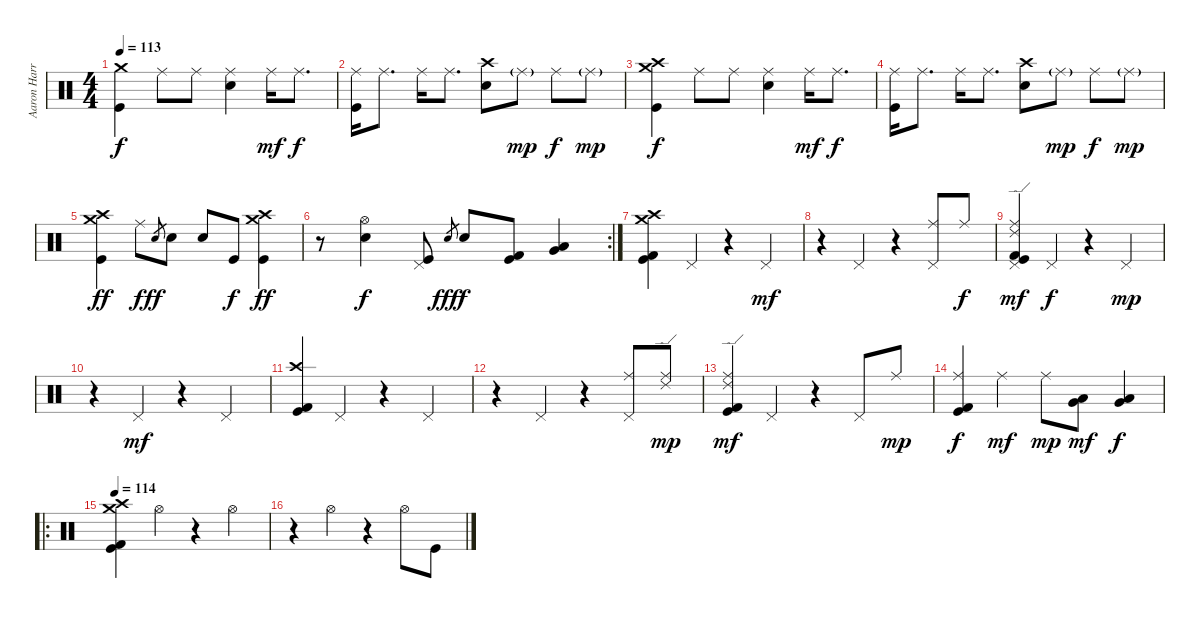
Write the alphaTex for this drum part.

\track ("Aaron Harris" "Aaron Harr") {instrument percussion}
\staff {score}
\articulation defaults
\ts (4 4)
\tempo 113
\clef neutral
\ks c
("Crash medium (hit)" "Kick (hit)").4{dy f} "Ride (middle)".8 "Ride (middle)".8 ("Ride (middle)" "Electric Snare (hit)").4 "Ride (middle)".16{dy mf} "Ride (middle)".8{d dy f} |
("Ride (middle)" "Kick (hit)").16 "Ride (middle)".8{d} "Ride (middle)".16 "Ride (middle)".8{d} ("Crash high (hit)" "Electric Snare (hit)").8 "Ride (middle)"{g}.8{dy mp} "Ride (middle)".8{dy f} "Ride (middle)"{g}.8{dy mp} |
("Crash medium (hit)" "Crash high (hit)" "Kick (hit)").4{dy f} "Ride (middle)".8 "Ride (middle)".8 ("Ride (middle)" "Electric Snare (hit)").4 "Ride (middle)".16{dy mf} "Ride (middle)".8{d dy f} |
("Ride (middle)" "Kick (hit)").16 "Ride (middle)".8{d} "Ride (middle)".16 "Ride (middle)".8{d} ("Crash high (hit)" "Electric Snare (hit)").8 "Ride (middle)"{g}.8{dy mp} "Ride (middle)".8{dy f} "Ride (middle)"{g}.8{dy mp} |
("Crash medium (hit)" "Crash high (hit)" "Kick (hit)").4{dy ff} "Ride (middle)".8{dy f} "Electric Snare (hit)".8{gr dy ff} "Electric Snare (hit)".8 "Electric Snare (hit)".8 "Kick (hit)".8{dy f} ("Crash medium (hit)" "Crash high (hit)" "Kick (hit)").4{dy ff} |
\rc 2
r.8 ("Hi-Hat (open)" "Electric Snare (hit)").4{dy f} ("Pedal Hi-Hat (hit)" "Kick (hit)").8 "Electric Snare (hit)".8{gr dy fff} "Electric Snare (hit)".8{dy f} ("Kick (hit) 2" "Kick (hit)").8 ("Low Tom (hit)" "Very Low Tom (hit)").4 |
("Crash medium (hit)" "Crash high (hit)" "Kick (hit) 2" "Kick (hit)").4 "Pedal Hi-Hat (hit)".4 r.4 "Pedal Hi-Hat (hit)".4{dy mf} |
r.4 "Pedal Hi-Hat (hit)".4 r.4 ("Ride (middle)" "Pedal Hi-Hat (hit)").8 "Ride (middle)".8{dy f} |
("Ride (edge) 2" "Ride (middle)" "Pedal Hi-Hat (hit)" "Kick (hit) 2" "Kick (hit)").4{dy mf} "Pedal Hi-Hat (hit)".4{dy f} r.4 "Pedal Hi-Hat (hit)".4{dy mp} |
r.4 "Pedal Hi-Hat (hit)".4{dy mf} r.4 "Pedal Hi-Hat (hit)".4 |
("Crash high (hit)" "Kick (hit) 2" "Kick (hit)").4 "Pedal Hi-Hat (hit)".4 r.4 "Pedal Hi-Hat (hit)".4 |
r.4 "Pedal Hi-Hat (hit)".4 r.4 ("Ride (middle)" "Pedal Hi-Hat (hit)").8 ("Ride (middle)" "Ride (edge) 2").8{dy mp} |
("Ride (middle)" "Ride (edge) 2" "Kick (hit) 2" "Kick (hit)").4{dy mf} "Pedal Hi-Hat (hit)".4 r.4 "Pedal Hi-Hat (hit)".8 "Ride (middle)".8{dy mp} |
("Ride (middle)" "Kick (hit) 2" "Kick (hit)").4{dy f} "Ride (middle)".4{dy mf} "Ride (middle)".8{dy mp} ("Low Tom (hit)" "Very Low Tom (hit)").8{dy mf} ("Low Tom (hit)" "Very Low Tom (hit)").4{dy f} |
\ro
\tempo 114
("Crash medium (hit)" "Crash high (hit)" "Kick (hit) 2" "Kick (hit)").4 "Hi-Hat (open)".4 r.4 "Hi-Hat (open)".4 |
r.4 "Hi-Hat (open)".4 r.4 "Hi-Hat (open)".8 "Kick (hit)".8
